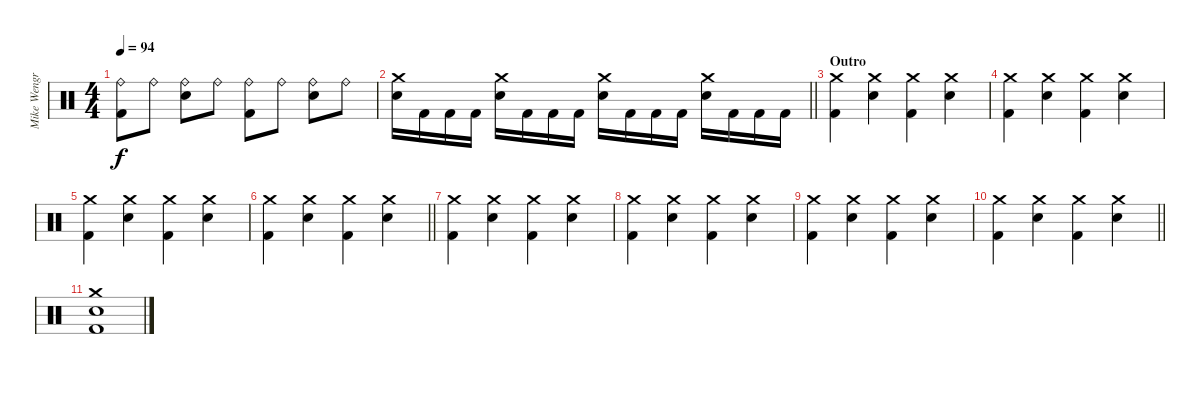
\track ("Mike Wengren" "Mike Wengr") {instrument percussion}
\staff {score}
\articulation defaults
\ts (4 4)
\tempo 94
\clef neutral
\ks c
("Kick (hit) 2" "Ride (bell)").8{dy f} "Ride (bell)".8 ("Electric Snare (hit)" "Ride (bell)").8 "Ride (bell)".8 ("Kick (hit) 2" "Ride (bell)").8 "Ride (bell)".8 ("Electric Snare (hit)" "Ride (bell)").8 "Ride (bell)".8 |
\barLineRight lightlight
("Electric Snare (hit)" "Crash medium (hit)").16 "Kick (hit) 2".16 "Kick (hit) 2".16 "Kick (hit) 2".16 ("Electric Snare (hit)" "Crash medium (hit)").16 "Kick (hit) 2".16 "Kick (hit) 2".16 "Kick (hit) 2".16 ("Electric Snare (hit)" "Crash medium (hit)").16 "Kick (hit) 2".16 "Kick (hit) 2".16 "Kick (hit) 2".16 ("Electric Snare (hit)" "Crash medium (hit)").16 "Kick (hit) 2".16 "Kick (hit) 2".16 "Kick (hit) 2".16 |
\section ("" "Outro")
("Kick (hit) 2" "Crash medium (hit)").4 ("Electric Snare (hit)" "Crash medium (hit)").4 ("Kick (hit) 2" "Crash medium (hit)").4 ("Electric Snare (hit)" "Crash medium (hit)").4 |
("Kick (hit) 2" "Crash medium (hit)").4 ("Electric Snare (hit)" "Crash medium (hit)").4 ("Kick (hit) 2" "Crash medium (hit)").4 ("Electric Snare (hit)" "Crash medium (hit)").4 |
("Kick (hit) 2" "Crash medium (hit)").4 ("Electric Snare (hit)" "Crash medium (hit)").4 ("Kick (hit) 2" "Crash medium (hit)").4 ("Electric Snare (hit)" "Crash medium (hit)").4 |
\barLineRight lightlight
("Kick (hit) 2" "Crash medium (hit)").4 ("Electric Snare (hit)" "Crash medium (hit)").4 ("Kick (hit) 2" "Crash medium (hit)").4 ("Electric Snare (hit)" "Crash medium (hit)").4 |
("Kick (hit) 2" "Crash medium (hit)").4 ("Electric Snare (hit)" "Crash medium (hit)").4 ("Kick (hit) 2" "Crash medium (hit)").4 ("Electric Snare (hit)" "Crash medium (hit)").4 |
("Kick (hit) 2" "Crash medium (hit)").4 ("Electric Snare (hit)" "Crash medium (hit)").4 ("Kick (hit) 2" "Crash medium (hit)").4 ("Electric Snare (hit)" "Crash medium (hit)").4 |
("Kick (hit) 2" "Crash medium (hit)").4 ("Electric Snare (hit)" "Crash medium (hit)").4 ("Kick (hit) 2" "Crash medium (hit)").4 ("Electric Snare (hit)" "Crash medium (hit)").4 |
\barLineRight lightlight
("Kick (hit) 2" "Crash medium (hit)").4 ("Electric Snare (hit)" "Crash medium (hit)").4 ("Kick (hit) 2" "Crash medium (hit)").4 ("Electric Snare (hit)" "Crash medium (hit)").4 |
("Kick (hit) 2" "Electric Snare (hit)" "Crash medium (hit)").1
